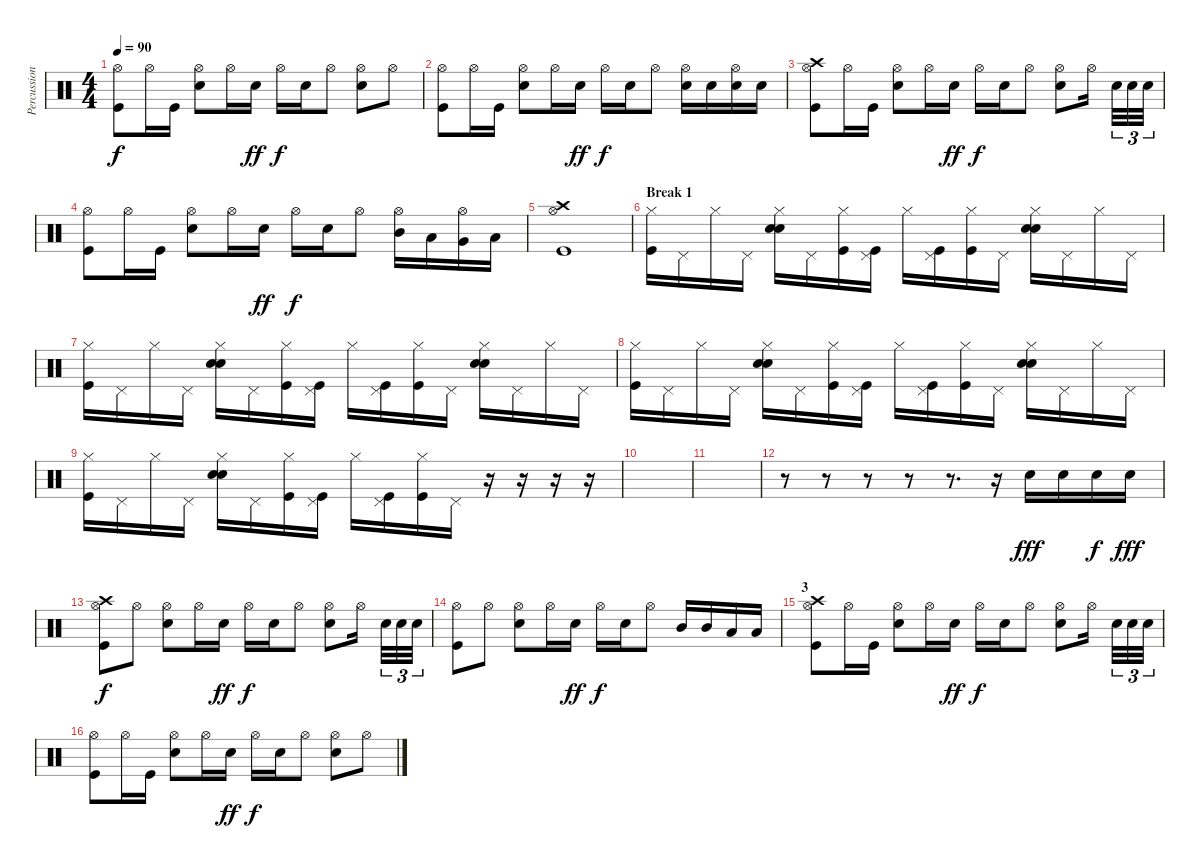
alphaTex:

\track ("Percussions" "Percussion") {instrument percussion}
\staff {score}
\articulation defaults
\ts (4 4)
\tempo 90
\clef neutral
\ks c
("Hi-Hat (open)" "Kick (hit)").8{dy f} "Hi-Hat (open)".16 "Kick (hit)".16 ("Hi-Hat (open)" "Snare (hit) 2").8 "Hi-Hat (open)".16 "Snare (hit) 2".16{dy ff} "Hi-Hat (open)".16{dy f} "Snare (hit) 2".16 "Hi-Hat (open)".8 ("Hi-Hat (open)" "Snare (hit) 2").8 "Hi-Hat (open)".8 |
("Hi-Hat (open)" "Kick (hit)").8 "Hi-Hat (open)".16 "Kick (hit)".16 ("Hi-Hat (open)" "Snare (hit) 2").8 "Hi-Hat (open)".16 "Snare (hit) 2".16{dy ff} "Hi-Hat (open)".16{dy f} "Snare (hit) 2".16 "Hi-Hat (open)".8 ("Hi-Hat (open)" "Snare (hit) 2").16 "Snare (hit) 2".16 ("Hi-Hat (open)" "Snare (hit) 2").16 "Snare (hit) 2".16 |
("Hi-Hat (open)" "Crash high (hit)" "Kick (hit)").8 "Hi-Hat (open)".16 "Kick (hit)".16 ("Hi-Hat (open)" "Snare (hit) 2").8 "Hi-Hat (open)".16 "Snare (hit) 2".16{dy ff} "Hi-Hat (open)".16{dy f} "Snare (hit) 2".16 "Hi-Hat (open)".8 ("Hi-Hat (open)" "Snare (hit) 2").8 "Hi-Hat (open)".16 "Snare (hit) 2".32{tu (3 2)} "Snare (hit) 2".32{tu (3 2)} "Snare (hit) 2".32{tu (3 2)} |
("Hi-Hat (open)" "Kick (hit)").8 "Hi-Hat (open)".16 "Kick (hit)".16 ("Hi-Hat (open)" "Snare (hit) 2").8 "Hi-Hat (open)".16 "Snare (hit) 2".16{dy ff} "Hi-Hat (open)".16{dy f} "Snare (hit) 2".16 "Hi-Hat (open)".8 ("Hi-Hat (open)" "Mid Tom (hit)").16 "Low Tom (hit)".16 ("Hi-Hat (open)" "Very Low Tom (hit)").16 "Low Floor Tom (hit)".16 |
("Hi-Hat (open)" "Crash high (hit)" "Kick (hit)").1 |
\section ("" "Break 1")
("Hi-Hat (closed)" "Kick (hit)").16 "Pedal Hi-Hat (hit)".16 "Hi-Hat (closed)".16 "Pedal Hi-Hat (hit)".16 ("Hi-Hat (closed)" "Electric Snare (hit)" "Snare (hit) 2").16 "Pedal Hi-Hat (hit)".16 ("Hi-Hat (closed)" "Kick (hit)").16 ("Pedal Hi-Hat (hit)" "Kick (hit)").16 "Hi-Hat (closed)".16 ("Pedal Hi-Hat (hit)" "Kick (hit)").16 ("Hi-Hat (closed)" "Kick (hit)").16 "Pedal Hi-Hat (hit)".16 ("Hi-Hat (closed)" "Electric Snare (hit)" "Snare (hit) 2").16 "Pedal Hi-Hat (hit)".16 "Hi-Hat (closed)".16 "Pedal Hi-Hat (hit)".16 |
("Hi-Hat (closed)" "Kick (hit)").16 "Pedal Hi-Hat (hit)".16 "Hi-Hat (closed)".16 "Pedal Hi-Hat (hit)".16 ("Hi-Hat (closed)" "Electric Snare (hit)" "Snare (hit) 2").16 "Pedal Hi-Hat (hit)".16 ("Hi-Hat (closed)" "Kick (hit)").16 ("Pedal Hi-Hat (hit)" "Kick (hit)").16 "Hi-Hat (closed)".16 ("Pedal Hi-Hat (hit)" "Kick (hit)").16 ("Hi-Hat (closed)" "Kick (hit)").16 "Pedal Hi-Hat (hit)".16 ("Hi-Hat (closed)" "Electric Snare (hit)" "Snare (hit) 2").16 "Pedal Hi-Hat (hit)".16 "Hi-Hat (closed)".16 "Pedal Hi-Hat (hit)".16 |
("Hi-Hat (closed)" "Kick (hit)").16 "Pedal Hi-Hat (hit)".16 "Hi-Hat (closed)".16 "Pedal Hi-Hat (hit)".16 ("Hi-Hat (closed)" "Electric Snare (hit)" "Snare (hit) 2").16 "Pedal Hi-Hat (hit)".16 ("Hi-Hat (closed)" "Kick (hit)").16 ("Pedal Hi-Hat (hit)" "Kick (hit)").16 "Hi-Hat (closed)".16 ("Pedal Hi-Hat (hit)" "Kick (hit)").16 ("Hi-Hat (closed)" "Kick (hit)").16 "Pedal Hi-Hat (hit)".16 ("Hi-Hat (closed)" "Electric Snare (hit)" "Snare (hit) 2").16 "Pedal Hi-Hat (hit)".16 "Hi-Hat (closed)".16 "Pedal Hi-Hat (hit)".16 |
("Hi-Hat (closed)" "Kick (hit)").16 "Pedal Hi-Hat (hit)".16 "Hi-Hat (closed)".16 "Pedal Hi-Hat (hit)".16 ("Hi-Hat (closed)" "Electric Snare (hit)" "Snare (hit) 2").16 "Pedal Hi-Hat (hit)".16 ("Hi-Hat (closed)" "Kick (hit)").16 ("Pedal Hi-Hat (hit)" "Kick (hit)").16 "Hi-Hat (closed)".16 ("Pedal Hi-Hat (hit)" "Kick (hit)").16 ("Hi-Hat (closed)" "Kick (hit)").16 "Pedal Hi-Hat (hit)".16 r.16 r.16 r.16 r.16 |
|
|
r.8 r.8 r.8 r.8 r.8{d} r.16 "Snare (hit) 2".16{dy fff} "Snare (hit) 2".16 "Snare (hit) 2".16{dy f} "Snare (hit) 2".16{dy fff} |
("Hi-Hat (open)" "Crash high (hit)" "Kick (hit)").8{dy f} "Hi-Hat (open)".8 ("Hi-Hat (open)" "Snare (hit) 2").8 "Hi-Hat (open)".16 "Snare (hit) 2".16{dy ff} "Hi-Hat (open)".16{dy f} "Snare (hit) 2".16 "Hi-Hat (open)".8 ("Hi-Hat (open)" "Snare (hit) 2").8 "Hi-Hat (open)".16 "Snare (hit) 2".32{tu (3 2)} "Snare (hit) 2".32{tu (3 2)} "Snare (hit) 2".32{tu (3 2)} |
("Hi-Hat (open)" "Kick (hit)").8 "Hi-Hat (open)".8 ("Hi-Hat (open)" "Snare (hit) 2").8 "Hi-Hat (open)".16 "Snare (hit) 2".16{dy ff} "Hi-Hat (open)".16{dy f} "Snare (hit) 2".16 "Hi-Hat (open)".8 "Mid Tom (hit)".16 "Mid Tom (hit)".16 "Low Tom (hit)".16 "Low Tom (hit)".16 |
\section ("" "3")
("Hi-Hat (open)" "Crash high (hit)" "Kick (hit)").8 "Hi-Hat (open)".16 "Kick (hit)".16 ("Hi-Hat (open)" "Snare (hit) 2").8 "Hi-Hat (open)".16 "Snare (hit) 2".16{dy ff} "Hi-Hat (open)".16{dy f} "Snare (hit) 2".16 "Hi-Hat (open)".8 ("Hi-Hat (open)" "Snare (hit) 2").8 "Hi-Hat (open)".16 "Snare (hit) 2".32{tu (3 2)} "Snare (hit) 2".32{tu (3 2)} "Snare (hit) 2".32{tu (3 2)} |
("Hi-Hat (open)" "Kick (hit)").8 "Hi-Hat (open)".16 "Kick (hit)".16 ("Hi-Hat (open)" "Snare (hit) 2").8 "Hi-Hat (open)".16 "Snare (hit) 2".16{dy ff} "Hi-Hat (open)".16{dy f} "Snare (hit) 2".16 "Hi-Hat (open)".8 ("Hi-Hat (open)" "Snare (hit) 2").8 "Hi-Hat (open)".8
